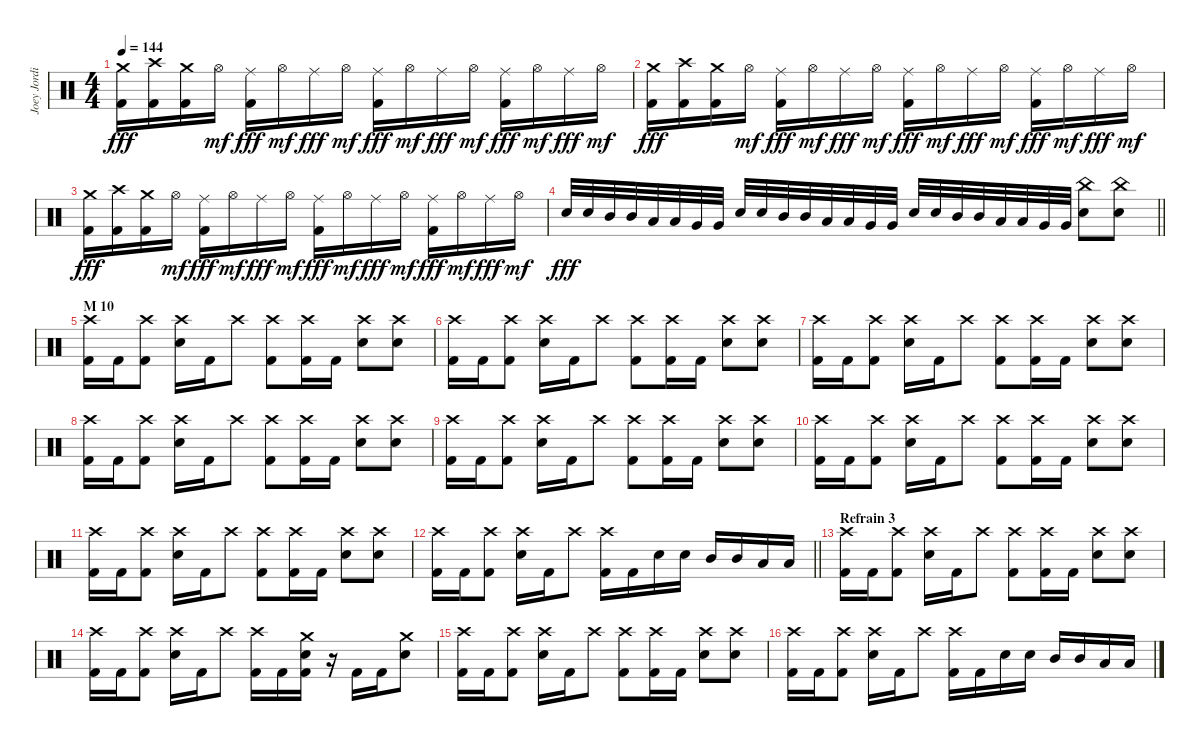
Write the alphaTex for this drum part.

\track ("Joey Jordison" "Joey Jordi") {instrument percussion}
\staff {score}
\articulation defaults
\ts (4 4)
\tempo 144
\clef neutral
\ks c
("Crash medium (hit)" "Kick (hit) 2").16{dy fff} ("Crash high (hit)" "Kick (hit) 2").16 ("Crash medium (hit)" "Kick (hit) 2").16 "Hi-Hat (open)".16{dy mf} ("Ride (middle)" "Kick (hit) 2").16{dy fff} "Hi-Hat (open)".16{dy mf} "Ride (middle)".16{dy fff} "Hi-Hat (open)".16{dy mf} ("Ride (middle)" "Kick (hit) 2").16{dy fff} "Hi-Hat (open)".16{dy mf} "Ride (middle)".16{dy fff} "Hi-Hat (open)".16{dy mf} ("Ride (middle)" "Kick (hit) 2").16{dy fff} "Hi-Hat (open)".16{dy mf} "Ride (middle)".16{dy fff} "Hi-Hat (open)".16{dy mf} |
("Crash medium (hit)" "Kick (hit) 2").16{dy fff} ("Crash high (hit)" "Kick (hit) 2").16 ("Crash medium (hit)" "Kick (hit) 2").16 "Hi-Hat (open)".16{dy mf} ("Ride (middle)" "Kick (hit) 2").16{dy fff} "Hi-Hat (open)".16{dy mf} "Ride (middle)".16{dy fff} "Hi-Hat (open)".16{dy mf} ("Ride (middle)" "Kick (hit) 2").16{dy fff} "Hi-Hat (open)".16{dy mf} "Ride (middle)".16{dy fff} "Hi-Hat (open)".16{dy mf} ("Ride (middle)" "Kick (hit) 2").16{dy fff} "Hi-Hat (open)".16{dy mf} "Ride (middle)".16{dy fff} "Hi-Hat (open)".16{dy mf} |
("Crash medium (hit)" "Kick (hit) 2").16{dy fff} ("Crash high (hit)" "Kick (hit) 2").16 ("Crash medium (hit)" "Kick (hit) 2").16 "Hi-Hat (open)".16{dy mf} ("Ride (middle)" "Kick (hit) 2").16{dy fff} "Hi-Hat (open)".16{dy mf} "Ride (middle)".16{dy fff} "Hi-Hat (open)".16{dy mf} ("Ride (middle)" "Kick (hit) 2").16{dy fff} "Hi-Hat (open)".16{dy mf} "Ride (middle)".16{dy fff} "Hi-Hat (open)".16{dy mf} ("Ride (middle)" "Kick (hit) 2").16{dy fff} "Hi-Hat (open)".16{dy mf} "Ride (middle)".16{dy fff} "Hi-Hat (open)".16{dy mf} |
\barLineRight lightlight "Electric Snare (hit)".32{dy fff} "Electric Snare (hit)".32 "Mid Tom (hit)".32 "Mid Tom (hit)".32 "Low Tom (hit)".32 "Low Tom (hit)".32 "Very Low Tom (hit)".32 "Very Low Tom (hit)".32 "Electric Snare (hit)".32 "Electric Snare (hit)".32 "Mid Tom (hit)".32 "Mid Tom (hit)".32 "Low Tom (hit)".32 "Low Tom (hit)".32 "Very Low Tom (hit)".32 "Very Low Tom (hit)".32 "Electric Snare (hit)".32 "Electric Snare (hit)".32 "Mid Tom (hit)".32 "Mid Tom (hit)".32 "Low Tom (hit)".32 "Low Tom (hit)".32 "Very Low Tom (hit)".32 "Very Low Tom (hit)".32
("China (hit)" "Electric Snare (hit)").8 ("China (hit)" "Electric Snare (hit)").8 |
\section ("" "M 10")
("Crash high (hit)" "Kick (hit) 2").16 "Kick (hit) 2".16 ("Crash high (hit)" "Kick (hit) 2").8 ("Crash high (hit)" "Electric Snare (hit)").16 "Kick (hit) 2".16 "Crash high (hit)".8 ("Crash high (hit)" "Kick (hit) 2").8 ("Crash high (hit)" "Kick (hit) 2").16 "Kick (hit) 2".16 ("Crash high (hit)" "Electric Snare (hit)").8 ("Crash high (hit)" "Electric Snare (hit)").8 |
("Crash high (hit)" "Kick (hit) 2").16 "Kick (hit) 2".16 ("Crash high (hit)" "Kick (hit) 2").8 ("Crash high (hit)" "Electric Snare (hit)").16 "Kick (hit) 2".16 "Crash high (hit)".8 ("Crash high (hit)" "Kick (hit) 2").8 ("Crash high (hit)" "Kick (hit) 2").16 "Kick (hit) 2".16 ("Crash high (hit)" "Electric Snare (hit)").8 ("Crash high (hit)" "Electric Snare (hit)").8 |
("Crash high (hit)" "Kick (hit) 2").16 "Kick (hit) 2".16 ("Crash high (hit)" "Kick (hit) 2").8 ("Crash high (hit)" "Electric Snare (hit)").16 "Kick (hit) 2".16 "Crash high (hit)".8 ("Crash high (hit)" "Kick (hit) 2").8 ("Crash high (hit)" "Kick (hit) 2").16 "Kick (hit) 2".16 ("Crash high (hit)" "Electric Snare (hit)").8 ("Crash high (hit)" "Electric Snare (hit)").8 |
("Crash high (hit)" "Kick (hit) 2").16 "Kick (hit) 2".16 ("Crash high (hit)" "Kick (hit) 2").8 ("Crash high (hit)" "Electric Snare (hit)").16 "Kick (hit) 2".16 "Crash high (hit)".8 ("Crash high (hit)" "Kick (hit) 2").8 ("Crash high (hit)" "Kick (hit) 2").16 "Kick (hit) 2".16 ("Crash high (hit)" "Electric Snare (hit)").8 ("Crash high (hit)" "Electric Snare (hit)").8 |
("Crash high (hit)" "Kick (hit) 2").16 "Kick (hit) 2".16 ("Crash high (hit)" "Kick (hit) 2").8 ("Crash high (hit)" "Electric Snare (hit)").16 "Kick (hit) 2".16 "Crash high (hit)".8 ("Crash high (hit)" "Kick (hit) 2").8 ("Crash high (hit)" "Kick (hit) 2").16 "Kick (hit) 2".16 ("Crash high (hit)" "Electric Snare (hit)").8 ("Crash high (hit)" "Electric Snare (hit)").8 |
("Crash high (hit)" "Kick (hit) 2").16 "Kick (hit) 2".16 ("Crash high (hit)" "Kick (hit) 2").8 ("Crash high (hit)" "Electric Snare (hit)").16 "Kick (hit) 2".16 "Crash high (hit)".8 ("Crash high (hit)" "Kick (hit) 2").8 ("Crash high (hit)" "Kick (hit) 2").16 "Kick (hit) 2".16 ("Crash high (hit)" "Electric Snare (hit)").8 ("Crash high (hit)" "Electric Snare (hit)").8 |
("Crash high (hit)" "Kick (hit) 2").16 "Kick (hit) 2".16 ("Crash high (hit)" "Kick (hit) 2").8 ("Crash high (hit)" "Electric Snare (hit)").16 "Kick (hit) 2".16 "Crash high (hit)".8 ("Crash high (hit)" "Kick (hit) 2").8 ("Crash high (hit)" "Kick (hit) 2").16 "Kick (hit) 2".16 ("Crash high (hit)" "Electric Snare (hit)").8 ("Crash high (hit)" "Electric Snare (hit)").8 |
\barLineRight lightlight
("Crash high (hit)" "Kick (hit) 2").16 "Kick (hit) 2".16 ("Crash high (hit)" "Kick (hit) 2").8 ("Crash high (hit)" "Electric Snare (hit)").16 "Kick (hit) 2".16 "Crash high (hit)".8 ("Crash high (hit)" "Kick (hit) 2").16 "Kick (hit) 2".16 "Electric Snare (hit)".16 "Electric Snare (hit)".16 "Mid Tom (hit)".16 "Mid Tom (hit)".16 "Low Tom (hit)".16 "Low Tom (hit)".16 |
\section ("" "Refrain 3")
("Crash high (hit)" "Kick (hit) 2").16 "Kick (hit) 2".16 ("Crash high (hit)" "Kick (hit) 2").8 ("Crash high (hit)" "Electric Snare (hit)").16 "Kick (hit) 2".16 "Crash high (hit)".8 ("Crash high (hit)" "Kick (hit) 2").8 ("Crash high (hit)" "Kick (hit) 2").16 "Kick (hit) 2".16 ("Crash high (hit)" "Electric Snare (hit)").8 ("Crash high (hit)" "Electric Snare (hit)").8 |
("Crash high (hit)" "Kick (hit) 2").16 "Kick (hit) 2".16 ("Crash high (hit)" "Kick (hit) 2").8 ("Crash high (hit)" "Electric Snare (hit)").16 "Kick (hit) 2".16 "Crash high (hit)".8 ("Crash high (hit)" "Kick (hit) 2").16 "Kick (hit) 2".16 ("Crash medium (hit)" "Electric Snare (hit)" "Kick (hit) 2").16 r.16 "Kick (hit) 2".16 "Kick (hit) 2".16 ("Crash medium (hit)" "Electric Snare (hit)").8 |
("Crash high (hit)" "Kick (hit) 2").16 "Kick (hit) 2".16 ("Crash high (hit)" "Kick (hit) 2").8 ("Crash high (hit)" "Electric Snare (hit)").16 "Kick (hit) 2".16 "Crash high (hit)".8 ("Crash high (hit)" "Kick (hit) 2").8 ("Crash high (hit)" "Kick (hit) 2").16 "Kick (hit) 2".16 ("Crash high (hit)" "Electric Snare (hit)").8 ("Crash high (hit)" "Electric Snare (hit)").8 |
("Crash high (hit)" "Kick (hit) 2").16 "Kick (hit) 2".16 ("Crash high (hit)" "Kick (hit) 2").8 ("Crash high (hit)" "Electric Snare (hit)").16 "Kick (hit) 2".16 "Crash high (hit)".8 ("Crash high (hit)" "Kick (hit) 2").16 "Kick (hit) 2".16 "Electric Snare (hit)".16 "Electric Snare (hit)".16 "Mid Tom (hit)".16 "Mid Tom (hit)".16 "Low Tom (hit)".16 "Low Tom (hit)".16
